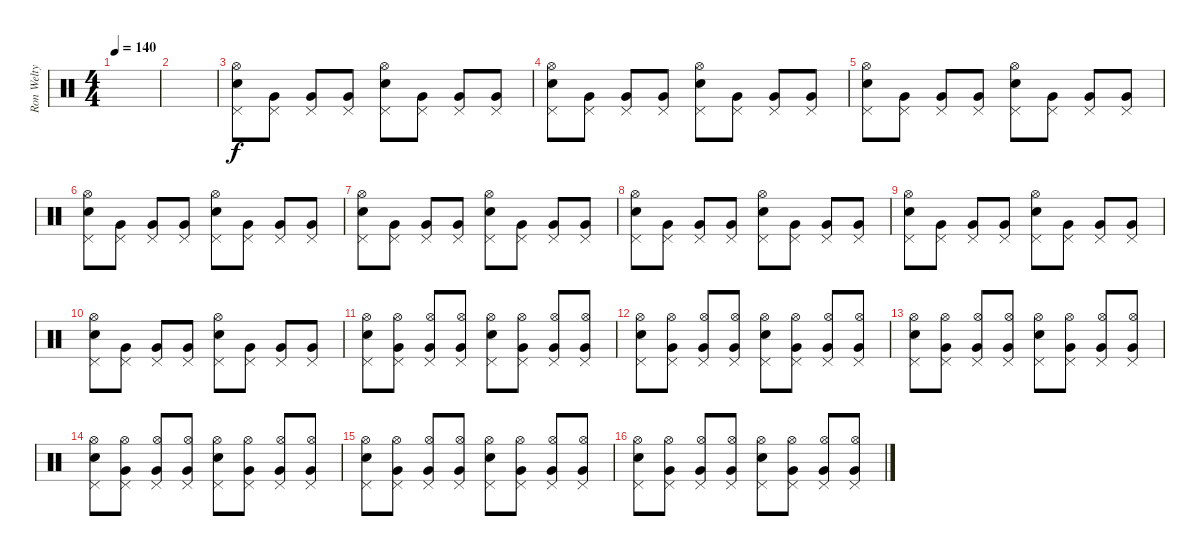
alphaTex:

\track ("Ron Welty - Bateria" "Ron Welty ") {instrument percussion}
\staff {score}
\articulation defaults
\ts (4 4)
\tempo 140
\clef neutral
\ks c
|
|
("Pedal Hi-Hat (hit)" "Electric Snare (hit)" "Hi-Hat (open)").8 ("Pedal Hi-Hat (hit)" "Very Low Tom (hit)").8 ("Pedal Hi-Hat (hit)" "Very Low Tom (hit)").8 ("Pedal Hi-Hat (hit)" "Very Low Tom (hit)").8 ("Electric Snare (hit)" "Pedal Hi-Hat (hit)" "Hi-Hat (open)").8 ("Pedal Hi-Hat (hit)" "Very Low Tom (hit)").8 ("Pedal Hi-Hat (hit)" "Very Low Tom (hit)").8 ("Pedal Hi-Hat (hit)" "Very Low Tom (hit)").8 |
("Electric Snare (hit)" "Pedal Hi-Hat (hit)" "Hi-Hat (open)").8 ("Very Low Tom (hit)" "Pedal Hi-Hat (hit)").8 ("Very Low Tom (hit)" "Pedal Hi-Hat (hit)").8 ("Very Low Tom (hit)" "Pedal Hi-Hat (hit)").8 ("Electric Snare (hit)" "Pedal Hi-Hat (hit)" "Hi-Hat (open)").8 ("Very Low Tom (hit)" "Pedal Hi-Hat (hit)").8 ("Very Low Tom (hit)" "Pedal Hi-Hat (hit)").8 ("Very Low Tom (hit)" "Pedal Hi-Hat (hit)").8 |
("Electric Snare (hit)" "Pedal Hi-Hat (hit)" "Hi-Hat (open)").8 ("Very Low Tom (hit)" "Pedal Hi-Hat (hit)").8 ("Very Low Tom (hit)" "Pedal Hi-Hat (hit)").8 ("Very Low Tom (hit)" "Pedal Hi-Hat (hit)").8 ("Electric Snare (hit)" "Pedal Hi-Hat (hit)" "Hi-Hat (open)").8 ("Very Low Tom (hit)" "Pedal Hi-Hat (hit)").8 ("Very Low Tom (hit)" "Pedal Hi-Hat (hit)").8 ("Very Low Tom (hit)" "Pedal Hi-Hat (hit)").8 |
("Electric Snare (hit)" "Pedal Hi-Hat (hit)" "Hi-Hat (open)").8 ("Very Low Tom (hit)" "Pedal Hi-Hat (hit)").8 ("Very Low Tom (hit)" "Pedal Hi-Hat (hit)").8 ("Very Low Tom (hit)" "Pedal Hi-Hat (hit)").8 ("Electric Snare (hit)" "Pedal Hi-Hat (hit)" "Hi-Hat (open)").8 ("Very Low Tom (hit)" "Pedal Hi-Hat (hit)").8 ("Very Low Tom (hit)" "Pedal Hi-Hat (hit)").8 ("Very Low Tom (hit)" "Pedal Hi-Hat (hit)").8 |
("Electric Snare (hit)" "Pedal Hi-Hat (hit)" "Hi-Hat (open)").8 ("Very Low Tom (hit)" "Pedal Hi-Hat (hit)").8 ("Very Low Tom (hit)" "Pedal Hi-Hat (hit)").8 ("Very Low Tom (hit)" "Pedal Hi-Hat (hit)").8 ("Electric Snare (hit)" "Pedal Hi-Hat (hit)" "Hi-Hat (open)").8 ("Very Low Tom (hit)" "Pedal Hi-Hat (hit)").8 ("Very Low Tom (hit)" "Pedal Hi-Hat (hit)").8 ("Very Low Tom (hit)" "Pedal Hi-Hat (hit)").8 |
("Electric Snare (hit)" "Pedal Hi-Hat (hit)" "Hi-Hat (open)").8 ("Very Low Tom (hit)" "Pedal Hi-Hat (hit)").8 ("Very Low Tom (hit)" "Pedal Hi-Hat (hit)").8 ("Very Low Tom (hit)" "Pedal Hi-Hat (hit)").8 ("Electric Snare (hit)" "Pedal Hi-Hat (hit)" "Hi-Hat (open)").8 ("Very Low Tom (hit)" "Pedal Hi-Hat (hit)").8 ("Very Low Tom (hit)" "Pedal Hi-Hat (hit)").8 ("Very Low Tom (hit)" "Pedal Hi-Hat (hit)").8 |
("Electric Snare (hit)" "Pedal Hi-Hat (hit)" "Hi-Hat (open)").8 ("Very Low Tom (hit)" "Pedal Hi-Hat (hit)").8 ("Very Low Tom (hit)" "Pedal Hi-Hat (hit)").8 ("Very Low Tom (hit)" "Pedal Hi-Hat (hit)").8 ("Electric Snare (hit)" "Pedal Hi-Hat (hit)" "Hi-Hat (open)").8 ("Very Low Tom (hit)" "Pedal Hi-Hat (hit)").8 ("Very Low Tom (hit)" "Pedal Hi-Hat (hit)").8 ("Very Low Tom (hit)" "Pedal Hi-Hat (hit)").8 |
("Electric Snare (hit)" "Pedal Hi-Hat (hit)" "Hi-Hat (open)").8 ("Very Low Tom (hit)" "Pedal Hi-Hat (hit)").8 ("Very Low Tom (hit)" "Pedal Hi-Hat (hit)").8 ("Very Low Tom (hit)" "Pedal Hi-Hat (hit)").8 ("Electric Snare (hit)" "Pedal Hi-Hat (hit)" "Hi-Hat (open)").8 ("Very Low Tom (hit)" "Pedal Hi-Hat (hit)").8 ("Very Low Tom (hit)" "Pedal Hi-Hat (hit)").8 ("Very Low Tom (hit)" "Pedal Hi-Hat (hit)").8 |
("Electric Snare (hit)" "Pedal Hi-Hat (hit)" "Hi-Hat (open)").8 ("Very Low Tom (hit)" "Pedal Hi-Hat (hit)" "Hi-Hat (open)").8 ("Very Low Tom (hit)" "Pedal Hi-Hat (hit)" "Hi-Hat (open)").8 ("Very Low Tom (hit)" "Pedal Hi-Hat (hit)" "Hi-Hat (open)").8 ("Electric Snare (hit)" "Pedal Hi-Hat (hit)" "Hi-Hat (open)").8 ("Very Low Tom (hit)" "Pedal Hi-Hat (hit)" "Hi-Hat (open)").8 ("Very Low Tom (hit)" "Pedal Hi-Hat (hit)" "Hi-Hat (open)").8 ("Very Low Tom (hit)" "Pedal Hi-Hat (hit)" "Hi-Hat (open)").8 |
("Electric Snare (hit)" "Pedal Hi-Hat (hit)" "Hi-Hat (open)").8 ("Very Low Tom (hit)" "Pedal Hi-Hat (hit)" "Hi-Hat (open)").8 ("Very Low Tom (hit)" "Pedal Hi-Hat (hit)" "Hi-Hat (open)").8 ("Very Low Tom (hit)" "Pedal Hi-Hat (hit)" "Hi-Hat (open)").8 ("Electric Snare (hit)" "Pedal Hi-Hat (hit)" "Hi-Hat (open)").8 ("Very Low Tom (hit)" "Pedal Hi-Hat (hit)" "Hi-Hat (open)").8 ("Very Low Tom (hit)" "Pedal Hi-Hat (hit)" "Hi-Hat (open)").8 ("Very Low Tom (hit)" "Pedal Hi-Hat (hit)" "Hi-Hat (open)").8 |
("Electric Snare (hit)" "Pedal Hi-Hat (hit)" "Hi-Hat (open)").8 ("Very Low Tom (hit)" "Pedal Hi-Hat (hit)" "Hi-Hat (open)").8 ("Very Low Tom (hit)" "Pedal Hi-Hat (hit)" "Hi-Hat (open)").8 ("Very Low Tom (hit)" "Pedal Hi-Hat (hit)" "Hi-Hat (open)").8 ("Electric Snare (hit)" "Pedal Hi-Hat (hit)" "Hi-Hat (open)").8 ("Very Low Tom (hit)" "Pedal Hi-Hat (hit)" "Hi-Hat (open)").8 ("Very Low Tom (hit)" "Pedal Hi-Hat (hit)" "Hi-Hat (open)").8 ("Very Low Tom (hit)" "Pedal Hi-Hat (hit)" "Hi-Hat (open)").8 |
("Electric Snare (hit)" "Pedal Hi-Hat (hit)" "Hi-Hat (open)").8 ("Very Low Tom (hit)" "Pedal Hi-Hat (hit)" "Hi-Hat (open)").8 ("Very Low Tom (hit)" "Pedal Hi-Hat (hit)" "Hi-Hat (open)").8 ("Very Low Tom (hit)" "Pedal Hi-Hat (hit)" "Hi-Hat (open)").8 ("Electric Snare (hit)" "Pedal Hi-Hat (hit)" "Hi-Hat (open)").8 ("Very Low Tom (hit)" "Pedal Hi-Hat (hit)" "Hi-Hat (open)").8 ("Very Low Tom (hit)" "Pedal Hi-Hat (hit)" "Hi-Hat (open)").8 ("Very Low Tom (hit)" "Pedal Hi-Hat (hit)" "Hi-Hat (open)").8 |
("Electric Snare (hit)" "Pedal Hi-Hat (hit)" "Hi-Hat (open)").8 ("Very Low Tom (hit)" "Pedal Hi-Hat (hit)" "Hi-Hat (open)").8 ("Very Low Tom (hit)" "Pedal Hi-Hat (hit)" "Hi-Hat (open)").8 ("Very Low Tom (hit)" "Pedal Hi-Hat (hit)" "Hi-Hat (open)").8 ("Electric Snare (hit)" "Pedal Hi-Hat (hit)" "Hi-Hat (open)").8 ("Very Low Tom (hit)" "Pedal Hi-Hat (hit)" "Hi-Hat (open)").8 ("Very Low Tom (hit)" "Pedal Hi-Hat (hit)" "Hi-Hat (open)").8 ("Very Low Tom (hit)" "Pedal Hi-Hat (hit)" "Hi-Hat (open)").8 |
("Electric Snare (hit)" "Pedal Hi-Hat (hit)" "Hi-Hat (open)").8 ("Very Low Tom (hit)" "Pedal Hi-Hat (hit)" "Hi-Hat (open)").8 ("Very Low Tom (hit)" "Pedal Hi-Hat (hit)" "Hi-Hat (open)").8 ("Very Low Tom (hit)" "Pedal Hi-Hat (hit)" "Hi-Hat (open)").8 ("Electric Snare (hit)" "Pedal Hi-Hat (hit)" "Hi-Hat (open)").8 ("Very Low Tom (hit)" "Pedal Hi-Hat (hit)" "Hi-Hat (open)").8 ("Very Low Tom (hit)" "Pedal Hi-Hat (hit)" "Hi-Hat (open)").8 ("Very Low Tom (hit)" "Pedal Hi-Hat (hit)" "Hi-Hat (open)").8
